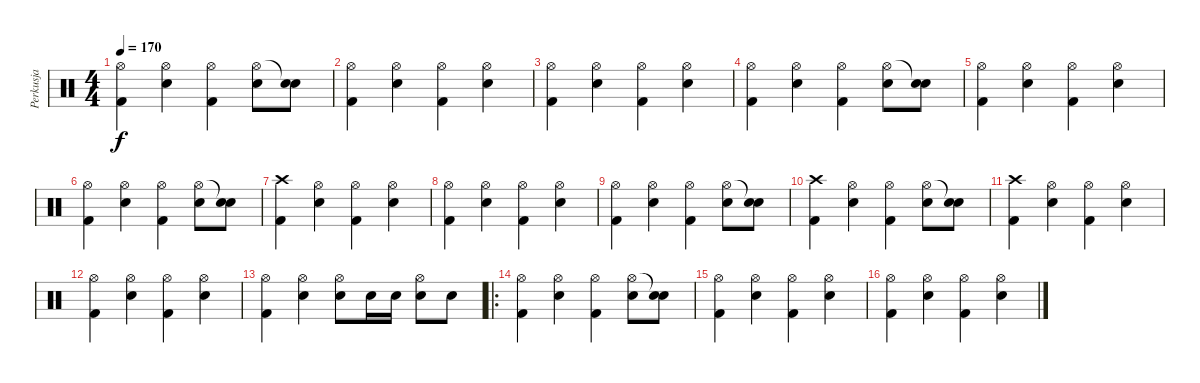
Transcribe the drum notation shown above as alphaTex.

\track ("Perkusja" "Perkusja") {instrument percussion}
\staff {score}
\articulation defaults
\ts (4 4)
\tempo 170
\clef neutral
\ks c
("Hi-Hat (open)" "Kick (hit) 2").4{dy f} ("Hi-Hat (open)" "Snare (hit) 2").4 ("Hi-Hat (open)" "Kick (hit) 2").4 ("Hi-Hat (open)" "Snare (hit) 2").8 ("Snare (hit)"{t} "Snare (hit) 2").8 |
("Hi-Hat (open)" "Kick (hit) 2").4 ("Hi-Hat (open)" "Snare (hit) 2").4 ("Hi-Hat (open)" "Kick (hit) 2").4 ("Hi-Hat (open)" "Snare (hit) 2").4 |
("Hi-Hat (open)" "Kick (hit) 2").4 ("Hi-Hat (open)" "Snare (hit) 2").4 ("Hi-Hat (open)" "Kick (hit) 2").4 ("Hi-Hat (open)" "Snare (hit) 2").4 |
("Hi-Hat (open)" "Kick (hit) 2").4 ("Hi-Hat (open)" "Snare (hit) 2").4 ("Hi-Hat (open)" "Kick (hit) 2").4 ("Hi-Hat (open)" "Snare (hit) 2").8 ("Snare (hit)"{t} "Snare (hit) 2").8 |
("Hi-Hat (open)" "Kick (hit) 2").4 ("Hi-Hat (open)" "Snare (hit) 2").4 ("Hi-Hat (open)" "Kick (hit) 2").4 ("Hi-Hat (open)" "Snare (hit) 2").4 |
("Hi-Hat (open)" "Kick (hit) 2").4 ("Hi-Hat (open)" "Snare (hit) 2").4 ("Hi-Hat (open)" "Kick (hit) 2").4 ("Hi-Hat (open)" "Snare (hit) 2").8 ("Snare (hit)"{t} "Snare (hit) 2").8 |
("Crash high (hit)" "Kick (hit) 2").4 ("Hi-Hat (open)" "Snare (hit) 2").4 ("Hi-Hat (open)" "Kick (hit) 2").4 ("Hi-Hat (open)" "Snare (hit) 2").4 |
("Hi-Hat (open)" "Kick (hit) 2").4 ("Hi-Hat (open)" "Snare (hit) 2").4 ("Hi-Hat (open)" "Kick (hit) 2").4 ("Hi-Hat (open)" "Snare (hit) 2").4 |
("Hi-Hat (open)" "Kick (hit) 2").4 ("Hi-Hat (open)" "Snare (hit) 2").4 ("Hi-Hat (open)" "Kick (hit) 2").4 ("Hi-Hat (open)" "Snare (hit) 2").8 ("Snare (hit)"{t} "Snare (hit) 2").8 |
("Crash high (hit)" "Kick (hit) 2").4 ("Hi-Hat (open)" "Snare (hit) 2").4 ("Hi-Hat (open)" "Kick (hit) 2").4 ("Hi-Hat (open)" "Snare (hit) 2").8 ("Snare (hit)"{t} "Snare (hit) 2").8 |
("Crash high (hit)" "Kick (hit) 2").4 ("Hi-Hat (open)" "Snare (hit) 2").4 ("Hi-Hat (open)" "Kick (hit) 2").4 ("Hi-Hat (open)" "Snare (hit) 2").4 |
("Hi-Hat (open)" "Kick (hit) 2").4 ("Hi-Hat (open)" "Snare (hit) 2").4 ("Hi-Hat (open)" "Kick (hit) 2").4 ("Hi-Hat (open)" "Snare (hit) 2").4 |
("Hi-Hat (open)" "Kick (hit) 2").4 ("Hi-Hat (open)" "Snare (hit) 2").4 ("Hi-Hat (open)" "Snare (hit) 2").8 "Snare (hit) 2".16 "Snare (hit) 2".16 ("Hi-Hat (open)" "Snare (hit) 2").8 "Snare (hit) 2".8 |
\ro
("Hi-Hat (open)" "Kick (hit) 2").4 ("Hi-Hat (open)" "Snare (hit) 2").4 ("Hi-Hat (open)" "Kick (hit) 2").4 ("Hi-Hat (open)" "Snare (hit) 2").8 ("Snare (hit)"{t} "Snare (hit) 2").8 |
("Hi-Hat (open)" "Kick (hit) 2").4 ("Hi-Hat (open)" "Snare (hit) 2").4 ("Hi-Hat (open)" "Kick (hit) 2").4 ("Hi-Hat (open)" "Snare (hit) 2").4 |
("Hi-Hat (open)" "Kick (hit) 2").4 ("Hi-Hat (open)" "Snare (hit) 2").4 ("Hi-Hat (open)" "Kick (hit) 2").4 ("Hi-Hat (open)" "Snare (hit) 2").4
